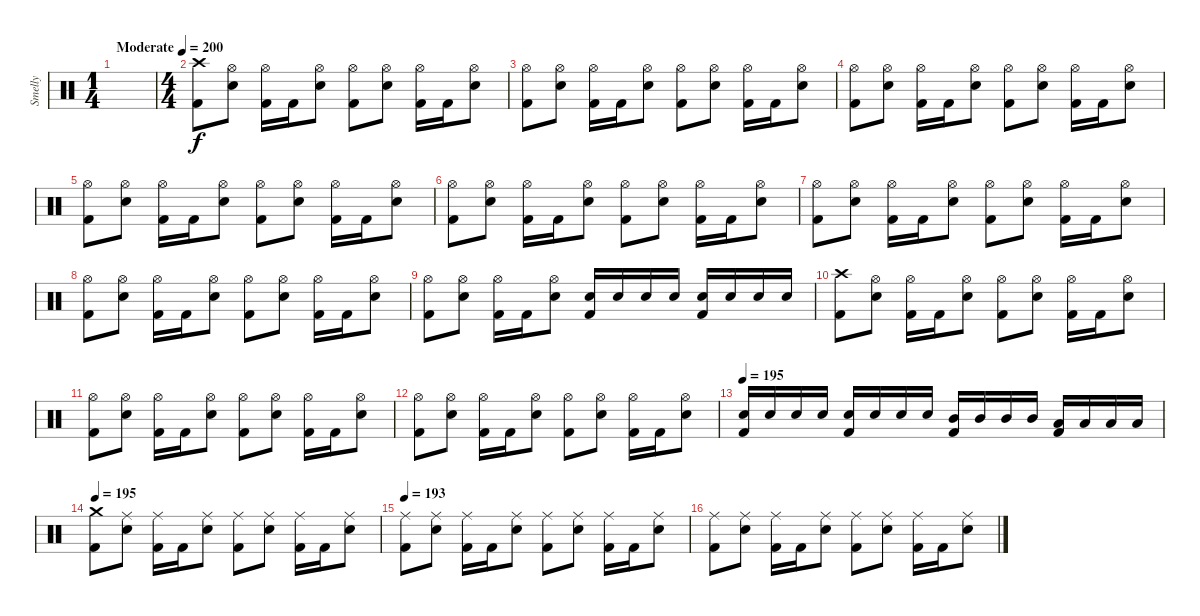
\track ("Smelly" "Smelly") {instrument percussion}
\staff {score}
\articulation defaults
\ts (1 4)
\tempo (200 "Moderate")
\clef neutral
\ks c
|
\ts (4 4)
("Crash high (hit)" "Kick (hit) 2").8 ("Hi-Hat (open)" "Electric Snare (hit)").8 ("Hi-Hat (open)" "Kick (hit) 2").16 "Kick (hit) 2".16 ("Hi-Hat (open)" "Electric Snare (hit)").8 ("Hi-Hat (open)" "Kick (hit) 2").8 ("Hi-Hat (open)" "Electric Snare (hit)").8 ("Hi-Hat (open)" "Kick (hit) 2").16 "Kick (hit) 2".16 ("Hi-Hat (open)" "Electric Snare (hit)").8 |
("Hi-Hat (open)" "Kick (hit) 2").8 ("Hi-Hat (open)" "Electric Snare (hit)").8 ("Hi-Hat (open)" "Kick (hit) 2").16 "Kick (hit) 2".16 ("Hi-Hat (open)" "Electric Snare (hit)").8 ("Hi-Hat (open)" "Kick (hit) 2").8 ("Hi-Hat (open)" "Electric Snare (hit)").8 ("Hi-Hat (open)" "Kick (hit) 2").16 "Kick (hit) 2".16 ("Hi-Hat (open)" "Electric Snare (hit)").8 |
("Hi-Hat (open)" "Kick (hit) 2").8 ("Hi-Hat (open)" "Electric Snare (hit)").8 ("Hi-Hat (open)" "Kick (hit) 2").16 "Kick (hit) 2".16 ("Hi-Hat (open)" "Electric Snare (hit)").8 ("Hi-Hat (open)" "Kick (hit) 2").8 ("Hi-Hat (open)" "Electric Snare (hit)").8 ("Hi-Hat (open)" "Kick (hit) 2").16 "Kick (hit) 2".16 ("Hi-Hat (open)" "Electric Snare (hit)").8 |
("Hi-Hat (open)" "Kick (hit) 2").8 ("Hi-Hat (open)" "Electric Snare (hit)").8 ("Hi-Hat (open)" "Kick (hit) 2").16 "Kick (hit) 2".16 ("Hi-Hat (open)" "Electric Snare (hit)").8 ("Hi-Hat (open)" "Kick (hit) 2").8 ("Hi-Hat (open)" "Electric Snare (hit)").8 ("Hi-Hat (open)" "Kick (hit) 2").16 "Kick (hit) 2".16 ("Hi-Hat (open)" "Electric Snare (hit)").8 |
("Hi-Hat (open)" "Kick (hit) 2").8 ("Hi-Hat (open)" "Electric Snare (hit)").8 ("Hi-Hat (open)" "Kick (hit) 2").16 "Kick (hit) 2".16 ("Hi-Hat (open)" "Electric Snare (hit)").8 ("Hi-Hat (open)" "Kick (hit) 2").8 ("Hi-Hat (open)" "Electric Snare (hit)").8 ("Hi-Hat (open)" "Kick (hit) 2").16 "Kick (hit) 2".16 ("Hi-Hat (open)" "Electric Snare (hit)").8 |
("Hi-Hat (open)" "Kick (hit) 2").8 ("Hi-Hat (open)" "Electric Snare (hit)").8 ("Hi-Hat (open)" "Kick (hit) 2").16 "Kick (hit) 2".16 ("Hi-Hat (open)" "Electric Snare (hit)").8 ("Hi-Hat (open)" "Kick (hit) 2").8 ("Hi-Hat (open)" "Electric Snare (hit)").8 ("Hi-Hat (open)" "Kick (hit) 2").16 "Kick (hit) 2".16 ("Hi-Hat (open)" "Electric Snare (hit)").8 |
("Hi-Hat (open)" "Kick (hit) 2").8 ("Hi-Hat (open)" "Electric Snare (hit)").8 ("Hi-Hat (open)" "Kick (hit) 2").16 "Kick (hit) 2".16 ("Hi-Hat (open)" "Electric Snare (hit)").8 ("Hi-Hat (open)" "Kick (hit) 2").8 ("Hi-Hat (open)" "Electric Snare (hit)").8 ("Hi-Hat (open)" "Kick (hit) 2").16 "Kick (hit) 2".16 ("Hi-Hat (open)" "Electric Snare (hit)").8 |
("Hi-Hat (open)" "Kick (hit) 2").8 ("Hi-Hat (open)" "Electric Snare (hit)").8 ("Hi-Hat (open)" "Kick (hit) 2").16 "Kick (hit) 2".16 ("Hi-Hat (open)" "Electric Snare (hit)").8 ("Electric Snare (hit)" "Kick (hit) 2").16 "Electric Snare (hit)".16 "Electric Snare (hit)".16 "Electric Snare (hit)".16 ("Electric Snare (hit)" "Kick (hit) 2").16 "Electric Snare (hit)".16 "Electric Snare (hit)".16 "Electric Snare (hit)".16 |
("Crash high (hit)" "Kick (hit) 2").8 ("Hi-Hat (open)" "Electric Snare (hit)").8 ("Hi-Hat (open)" "Kick (hit) 2").16 "Kick (hit) 2".16 ("Hi-Hat (open)" "Electric Snare (hit)").8 ("Hi-Hat (open)" "Kick (hit) 2").8 ("Hi-Hat (open)" "Electric Snare (hit)").8 ("Hi-Hat (open)" "Kick (hit) 2").16 "Kick (hit) 2".16 ("Hi-Hat (open)" "Electric Snare (hit)").8 |
("Hi-Hat (open)" "Kick (hit) 2").8 ("Hi-Hat (open)" "Electric Snare (hit)").8 ("Hi-Hat (open)" "Kick (hit) 2").16 "Kick (hit) 2".16 ("Hi-Hat (open)" "Electric Snare (hit)").8 ("Hi-Hat (open)" "Kick (hit) 2").8 ("Hi-Hat (open)" "Electric Snare (hit)").8 ("Hi-Hat (open)" "Kick (hit) 2").16 "Kick (hit) 2".16 ("Hi-Hat (open)" "Electric Snare (hit)").8 |
("Hi-Hat (open)" "Kick (hit) 2").8 ("Hi-Hat (open)" "Electric Snare (hit)").8 ("Hi-Hat (open)" "Kick (hit) 2").16 "Kick (hit) 2".16 ("Hi-Hat (open)" "Electric Snare (hit)").8 ("Hi-Hat (open)" "Kick (hit) 2").8 ("Hi-Hat (open)" "Electric Snare (hit)").8 ("Hi-Hat (open)" "Kick (hit) 2").16 "Kick (hit) 2".16 ("Hi-Hat (open)" "Electric Snare (hit)").8 |
\tempo 195
("Electric Snare (hit)" "Kick (hit) 2").16 "Electric Snare (hit)".16 "Electric Snare (hit)".16 "Electric Snare (hit)".16 ("Electric Snare (hit)" "Kick (hit) 2").16 "Electric Snare (hit)".16 "Electric Snare (hit)".16 "Electric Snare (hit)".16 ("Mid Tom (hit)" "Kick (hit) 2").16 "Mid Tom (hit)".16 "Mid Tom (hit)".16 "Mid Tom (hit)".16 ("Low Tom (hit)" "Kick (hit) 2").16 "Low Tom (hit)".16 "Low Floor Tom (hit)".16 "Low Floor Tom (hit)".16 |
\tempo 195
("Crash medium (hit)" "Kick (hit) 2").8 ("Ride (middle)" "Electric Snare (hit)").8 ("Ride (middle)" "Kick (hit) 2").16 "Kick (hit) 2".16 ("Ride (middle)" "Electric Snare (hit)").8 ("Ride (middle)" "Kick (hit) 2").8 ("Ride (middle)" "Electric Snare (hit)").8 ("Ride (middle)" "Kick (hit) 2").16 "Kick (hit) 2".16 ("Ride (middle)" "Electric Snare (hit)").8 |
\tempo 193
("Ride (middle)" "Kick (hit) 2").8 ("Ride (middle)" "Electric Snare (hit)").8 ("Ride (middle)" "Kick (hit) 2").16 "Kick (hit) 2".16 ("Ride (middle)" "Electric Snare (hit)").8 ("Ride (middle)" "Kick (hit) 2").8 ("Ride (middle)" "Electric Snare (hit)").8 ("Ride (middle)" "Kick (hit) 2").16 "Kick (hit) 2".16 ("Ride (middle)" "Electric Snare (hit)").8 |
("Ride (middle)" "Kick (hit) 2").8 ("Ride (middle)" "Electric Snare (hit)").8 ("Ride (middle)" "Kick (hit) 2").16 "Kick (hit) 2".16 ("Ride (middle)" "Electric Snare (hit)").8 ("Ride (middle)" "Kick (hit) 2").8 ("Ride (middle)" "Electric Snare (hit)").8 ("Ride (middle)" "Kick (hit) 2").16 "Kick (hit) 2".16 ("Ride (middle)" "Electric Snare (hit)").8
